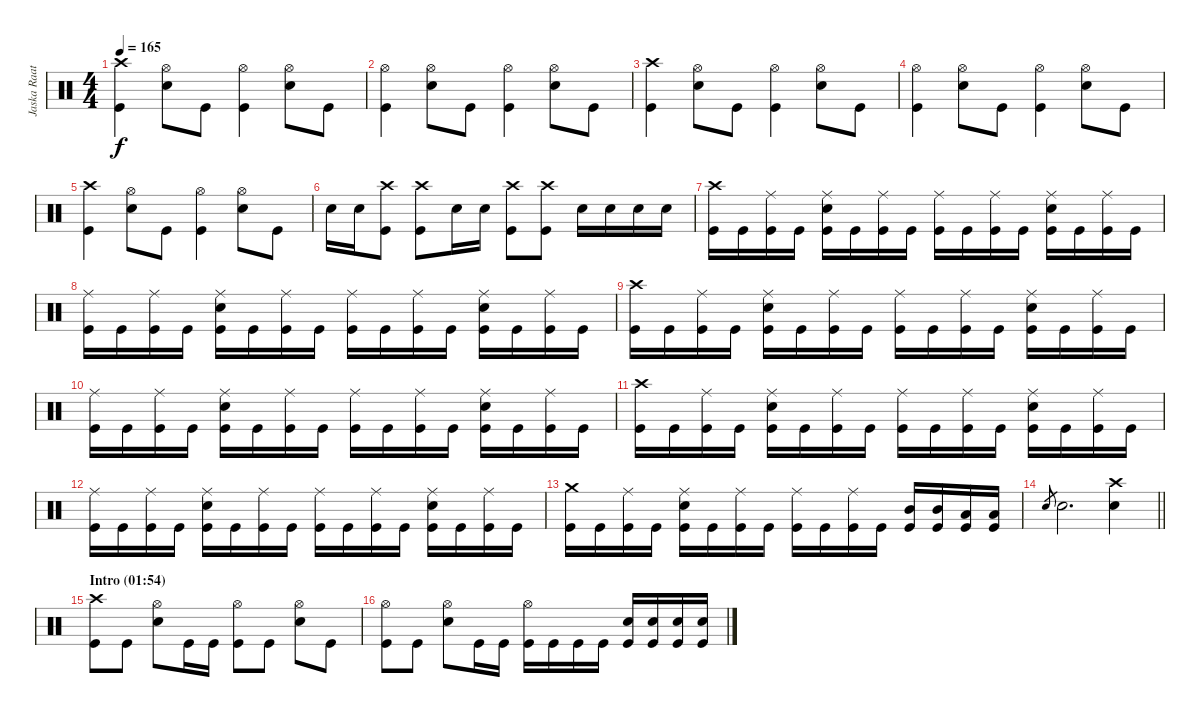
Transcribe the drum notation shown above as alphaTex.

\track ("Jaska Raatikainen" "Jaska Raat") {instrument percussion}
\staff {score}
\articulation defaults
\ts (4 4)
\tempo 165
\clef neutral
\ks c
("Crash high (hit)" "Kick (hit)").4{dy f} ("Hi-Hat (open)" "Electric Snare (hit)").8 "Kick (hit)".8 ("Hi-Hat (open)" "Kick (hit)").4 ("Hi-Hat (open)" "Electric Snare (hit)").8 "Kick (hit)".8 |
("Hi-Hat (open)" "Kick (hit)").4 ("Hi-Hat (open)" "Electric Snare (hit)").8 "Kick (hit)".8 ("Hi-Hat (open)" "Kick (hit)").4 ("Hi-Hat (open)" "Electric Snare (hit)").8 "Kick (hit)".8 |
("Crash high (hit)" "Kick (hit)").4 ("Hi-Hat (open)" "Electric Snare (hit)").8 "Kick (hit)".8 ("Hi-Hat (open)" "Kick (hit)").4 ("Hi-Hat (open)" "Electric Snare (hit)").8 "Kick (hit)".8 |
("Hi-Hat (open)" "Kick (hit)").4 ("Hi-Hat (open)" "Electric Snare (hit)").8 "Kick (hit)".8 ("Hi-Hat (open)" "Kick (hit)").4 ("Hi-Hat (open)" "Electric Snare (hit)").8 "Kick (hit)".8 |
("Crash high (hit)" "Kick (hit)").4 ("Hi-Hat (open)" "Electric Snare (hit)").8 "Kick (hit)".8 ("Hi-Hat (open)" "Kick (hit)").4 ("Hi-Hat (open)" "Electric Snare (hit)").8 "Kick (hit)".8 |
"Electric Snare (hit)".16 "Electric Snare (hit)".16 ("Crash high (hit)" "Kick (hit)").8 ("Crash high (hit)" "Kick (hit)").8 "Electric Snare (hit)".16 "Electric Snare (hit)".16 ("Crash high (hit)" "Kick (hit)").8 ("Crash high (hit)" "Kick (hit)").8 "Electric Snare (hit)".16 "Electric Snare (hit)".16 "Electric Snare (hit)".16 "Electric Snare (hit)".16 |
("Crash high (hit)" "Kick (hit)").16 "Kick (hit)".16 ("Ride (middle)" "Kick (hit)").16 "Kick (hit)".16 ("Ride (middle)" "Electric Snare (hit)" "Kick (hit)").16 "Kick (hit)".16 ("Ride (middle)" "Kick (hit)").16 "Kick (hit)".16 ("Ride (middle)" "Kick (hit)").16 "Kick (hit)".16 ("Ride (middle)" "Kick (hit)").16 "Kick (hit)".16 ("Ride (middle)" "Electric Snare (hit)" "Kick (hit)").16 "Kick (hit)".16 ("Ride (middle)" "Kick (hit)").16 "Kick (hit)".16 |
("Ride (middle)" "Kick (hit)").16 "Kick (hit)".16 ("Ride (middle)" "Kick (hit)").16 "Kick (hit)".16 ("Ride (middle)" "Electric Snare (hit)" "Kick (hit)").16 "Kick (hit)".16 ("Ride (middle)" "Kick (hit)").16 "Kick (hit)".16 ("Ride (middle)" "Kick (hit)").16 "Kick (hit)".16 ("Ride (middle)" "Kick (hit)").16 "Kick (hit)".16 ("Ride (middle)" "Electric Snare (hit)" "Kick (hit)").16 "Kick (hit)".16 ("Ride (middle)" "Kick (hit)").16 "Kick (hit)".16 |
("Crash high (hit)" "Kick (hit)").16 "Kick (hit)".16 ("Ride (middle)" "Kick (hit)").16 "Kick (hit)".16 ("Ride (middle)" "Electric Snare (hit)" "Kick (hit)").16 "Kick (hit)".16 ("Ride (middle)" "Kick (hit)").16 "Kick (hit)".16 ("Ride (middle)" "Kick (hit)").16 "Kick (hit)".16 ("Ride (middle)" "Kick (hit)").16 "Kick (hit)".16 ("Ride (middle)" "Electric Snare (hit)" "Kick (hit)").16 "Kick (hit)".16 ("Ride (middle)" "Kick (hit)").16 "Kick (hit)".16 |
("Ride (middle)" "Kick (hit)").16 "Kick (hit)".16 ("Ride (middle)" "Kick (hit)").16 "Kick (hit)".16 ("Ride (middle)" "Electric Snare (hit)" "Kick (hit)").16 "Kick (hit)".16 ("Ride (middle)" "Kick (hit)").16 "Kick (hit)".16 ("Ride (middle)" "Kick (hit)").16 "Kick (hit)".16 ("Ride (middle)" "Kick (hit)").16 "Kick (hit)".16 ("Ride (middle)" "Electric Snare (hit)" "Kick (hit)").16 "Kick (hit)".16 ("Ride (middle)" "Kick (hit)").16 "Kick (hit)".16 |
("Crash high (hit)" "Kick (hit)").16 "Kick (hit)".16 ("Ride (middle)" "Kick (hit)").16 "Kick (hit)".16 ("Ride (middle)" "Electric Snare (hit)" "Kick (hit)").16 "Kick (hit)".16 ("Ride (middle)" "Kick (hit)").16 "Kick (hit)".16 ("Ride (middle)" "Kick (hit)").16 "Kick (hit)".16 ("Ride (middle)" "Kick (hit)").16 "Kick (hit)".16 ("Ride (middle)" "Electric Snare (hit)" "Kick (hit)").16 "Kick (hit)".16 ("Ride (middle)" "Kick (hit)").16 "Kick (hit)".16 |
("Ride (middle)" "Kick (hit)").16 "Kick (hit)".16 ("Ride (middle)" "Kick (hit)").16 "Kick (hit)".16 ("Ride (middle)" "Electric Snare (hit)" "Kick (hit)").16 "Kick (hit)".16 ("Ride (middle)" "Kick (hit)").16 "Kick (hit)".16 ("Ride (middle)" "Kick (hit)").16 "Kick (hit)".16 ("Ride (middle)" "Kick (hit)").16 "Kick (hit)".16 ("Ride (middle)" "Electric Snare (hit)" "Kick (hit)").16 "Kick (hit)".16 ("Ride (middle)" "Kick (hit)").16 "Kick (hit)".16 |
("Crash medium (hit)" "Kick (hit)").16 "Kick (hit)".16 ("Ride (middle)" "Kick (hit)").16 "Kick (hit)".16 ("Ride (middle)" "Electric Snare (hit)" "Kick (hit)").16 "Kick (hit)".16 ("Ride (middle)" "Kick (hit)").16 "Kick (hit)".16 ("Ride (middle)" "Kick (hit)").16 "Kick (hit)".16 ("Ride (middle)" "Kick (hit)").16 "Kick (hit)".16 ("Mid Tom (hit)" "Kick (hit)").16 ("Mid Tom (hit)" "Kick (hit)").16 ("Low Tom (hit)" "Kick (hit)").16 ("Low Tom (hit)" "Kick (hit)").16 |
\barLineRight lightlight "Electric Snare (hit)".8{gr} "Electric Snare (hit)".2{d}
("Crash high (hit)" "Electric Snare (hit)").4 |
\section ("" "Intro (01:54)")
("Crash high (hit)" "Kick (hit)").8 "Kick (hit)".8 ("Hi-Hat (open)" "Electric Snare (hit)").8 "Kick (hit)".16 "Kick (hit)".16 ("Hi-Hat (open)" "Kick (hit)").8 "Kick (hit)".8 ("Hi-Hat (open)" "Electric Snare (hit)").8 "Kick (hit)".8 |
("Hi-Hat (open)" "Kick (hit)").8 "Kick (hit)".8 ("Hi-Hat (open)" "Electric Snare (hit)").8 "Kick (hit)".16 "Kick (hit)".16 ("Hi-Hat (open)" "Kick (hit)").16 "Kick (hit)".16 "Kick (hit)".16 "Kick (hit)".16 ("Electric Snare (hit)" "Kick (hit)").16 ("Electric Snare (hit)" "Kick (hit)").16 ("Electric Snare (hit)" "Kick (hit)").16 ("Electric Snare (hit)" "Kick (hit)").16
